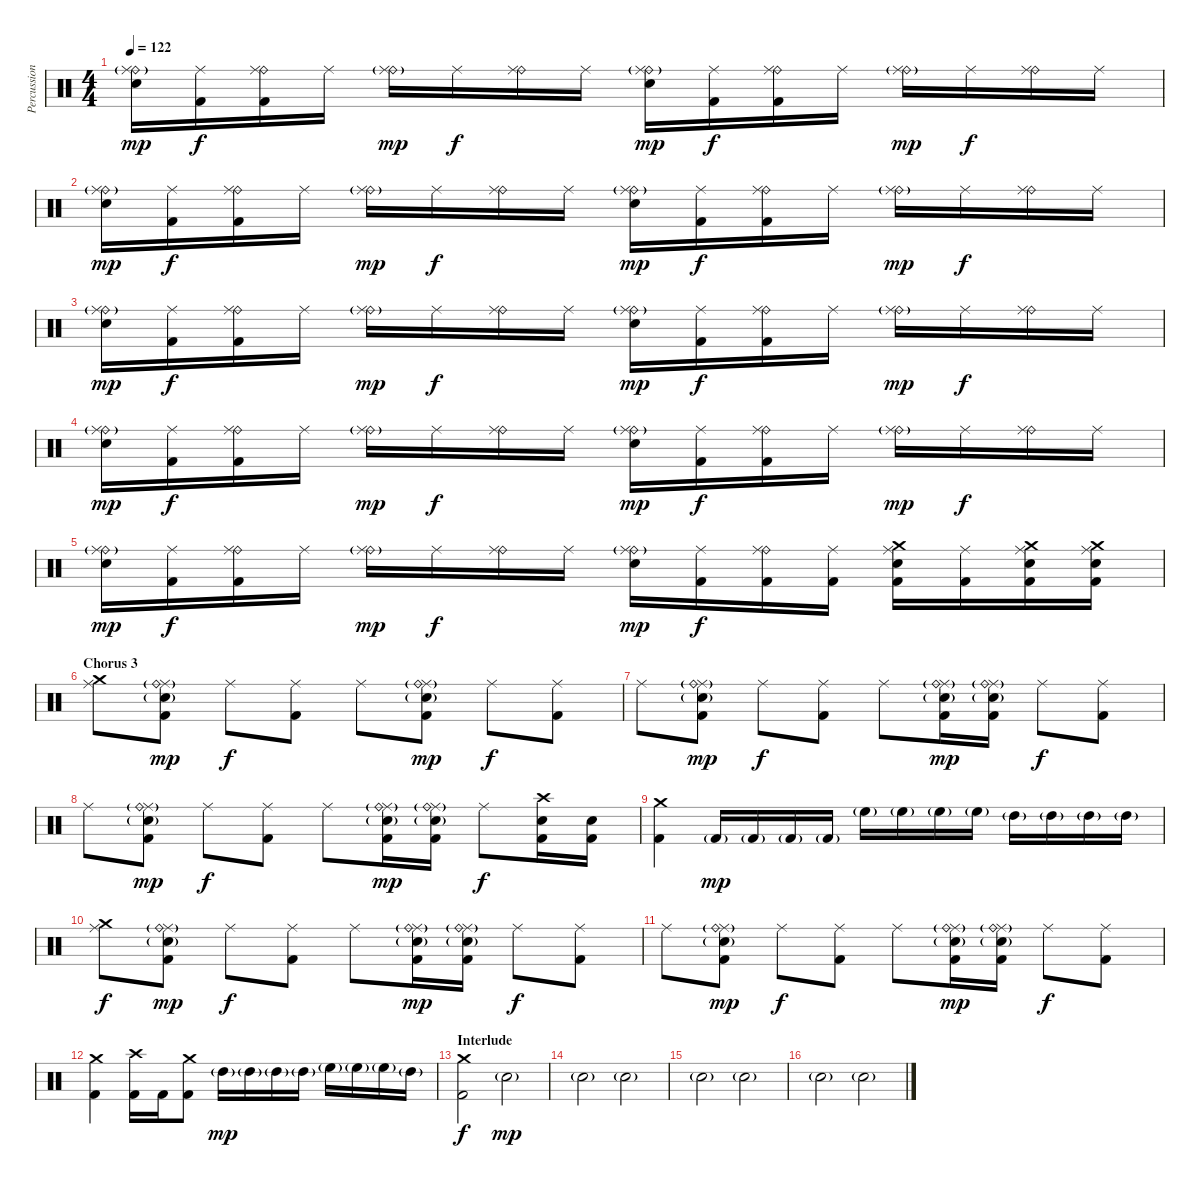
\track ("Percussion" "Percussion") {instrument percussion}
\staff {score}
\articulation defaults
\ts (4 4)
\tempo 122
\clef neutral
\ks c
("Ride (bell)"{g} "Ride (middle)"{g} "Snare (hit) 2").16{dy mp} ("Ride (middle)" "Kick (hit) 2").16{dy f} ("Ride (bell)" "Ride (middle)" "Kick (hit) 2").16 "Ride (middle)".16 ("Ride (bell)"{g} "Ride (middle)").16{dy mp} "Ride (middle)".16{dy f} ("Ride (bell)" "Ride (middle)").16 "Ride (middle)".16 ("Ride (bell)"{g} "Ride (middle)"{g} "Snare (hit) 2").16{dy mp} ("Ride (middle)" "Kick (hit) 2").16{dy f} ("Ride (bell)" "Ride (middle)" "Kick (hit) 2").16 "Ride (middle)".16 ("Ride (bell)"{g} "Ride (middle)").16{dy mp} "Ride (middle)".16{dy f} ("Ride (bell)" "Ride (middle)").16 "Ride (middle)".16 |
("Ride (bell)"{g} "Ride (middle)"{g} "Snare (hit) 2").16{dy mp} ("Ride (middle)" "Kick (hit) 2").16{dy f} ("Ride (bell)" "Ride (middle)" "Kick (hit) 2").16 "Ride (middle)".16 ("Ride (bell)"{g} "Ride (middle)").16{dy mp} "Ride (middle)".16{dy f} ("Ride (bell)" "Ride (middle)").16 "Ride (middle)".16 ("Ride (bell)"{g} "Ride (middle)"{g} "Snare (hit) 2").16{dy mp} ("Ride (middle)" "Kick (hit) 2").16{dy f} ("Ride (bell)" "Ride (middle)" "Kick (hit) 2").16 "Ride (middle)".16 ("Ride (bell)"{g} "Ride (middle)").16{dy mp} "Ride (middle)".16{dy f} ("Ride (bell)" "Ride (middle)").16 "Ride (middle)".16 |
("Ride (bell)"{g} "Ride (middle)"{g} "Snare (hit) 2").16{dy mp} ("Ride (middle)" "Kick (hit) 2").16{dy f} ("Ride (bell)" "Ride (middle)" "Kick (hit) 2").16 "Ride (middle)".16 ("Ride (bell)"{g} "Ride (middle)").16{dy mp} "Ride (middle)".16{dy f} ("Ride (bell)" "Ride (middle)").16 "Ride (middle)".16 ("Ride (bell)"{g} "Ride (middle)"{g} "Snare (hit) 2").16{dy mp} ("Ride (middle)" "Kick (hit) 2").16{dy f} ("Ride (bell)" "Ride (middle)" "Kick (hit) 2").16 "Ride (middle)".16 ("Ride (bell)"{g} "Ride (middle)").16{dy mp} "Ride (middle)".16{dy f} ("Ride (bell)" "Ride (middle)").16 "Ride (middle)".16 |
("Ride (bell)"{g} "Ride (middle)"{g} "Snare (hit) 2").16{dy mp} ("Ride (middle)" "Kick (hit) 2").16{dy f} ("Ride (bell)" "Ride (middle)" "Kick (hit) 2").16 "Ride (middle)".16 ("Ride (bell)"{g} "Ride (middle)").16{dy mp} "Ride (middle)".16{dy f} ("Ride (bell)" "Ride (middle)").16 "Ride (middle)".16 ("Ride (bell)"{g} "Ride (middle)"{g} "Snare (hit) 2").16{dy mp} ("Ride (middle)" "Kick (hit) 2").16{dy f} ("Ride (bell)" "Ride (middle)" "Kick (hit) 2").16 "Ride (middle)".16 ("Ride (bell)"{g} "Ride (middle)").16{dy mp} "Ride (middle)".16{dy f} ("Ride (bell)" "Ride (middle)").16 "Ride (middle)".16 |
("Ride (bell)"{g} "Ride (middle)"{g} "Snare (hit) 2").16{dy mp} ("Ride (middle)" "Kick (hit) 2").16{dy f} ("Ride (bell)" "Ride (middle)" "Kick (hit) 2").16 "Ride (middle)".16 ("Ride (bell)"{g} "Ride (middle)").16{dy mp} "Ride (middle)".16{dy f} ("Ride (bell)" "Ride (middle)").16 "Ride (middle)".16 ("Ride (bell)"{g} "Ride (middle)"{g} "Snare (hit) 2").16{dy mp} ("Ride (middle)" "Kick (hit) 2").16{dy f} ("Ride (bell)" "Ride (middle)" "Kick (hit) 2").16 ("Ride (middle)" "Kick (hit) 2").16 ("Crash medium (hit)" "Ride (middle)" "Snare (hit) 2" "Kick (hit) 2").16 ("Ride (middle)" "Kick (hit) 2").16 ("Crash medium (hit)" "Ride (middle)" "Snare (hit) 2" "Kick (hit) 2").16 ("Crash medium (hit)" "Ride (middle)" "Snare (hit) 2" "Kick (hit) 2").16 |
\section ("" "Chorus 3")
("Crash medium (hit)" "Ride (middle)").8{volume 7} ("Snare (hit) 2"{g} "Ride (middle)"{g} "Ride (bell)" "Kick (hit) 2").8{dy mp} "Ride (middle)".8{dy f} ("Ride (middle)" "Kick (hit) 2").8 "Ride (middle)".8 ("Snare (hit) 2"{g} "Ride (middle)"{g} "Ride (bell)" "Kick (hit) 2").8{dy mp} "Ride (middle)".8{dy f} ("Ride (middle)" "Kick (hit) 2").8 |
"Ride (middle)".8 ("Snare (hit) 2"{g} "Ride (middle)"{g} "Ride (bell)" "Kick (hit) 2").8{dy mp} "Ride (middle)".8{dy f} ("Ride (middle)" "Kick (hit) 2").8 "Ride (middle)".8 ("Snare (hit) 2"{g} "Ride (middle)"{g} "Ride (bell)" "Kick (hit) 2").16{dy mp} ("Snare (hit) 2"{g} "Ride (middle)"{g} "Ride (bell)" "Kick (hit) 2").16 "Ride (middle)".8{dy f} ("Ride (middle)" "Kick (hit) 2").8 |
"Ride (middle)".8 ("Snare (hit) 2"{g} "Ride (middle)"{g} "Ride (bell)" "Kick (hit) 2").8{dy mp} "Ride (middle)".8{dy f} ("Ride (middle)" "Kick (hit) 2").8 "Ride (middle)".8 ("Snare (hit) 2"{g} "Ride (middle)"{g} "Ride (bell)" "Kick (hit) 2").16{dy mp} ("Snare (hit) 2"{g} "Ride (middle)"{g} "Ride (bell)" "Kick (hit) 2").16 "Ride (middle)".8{dy f} ("Snare (hit) 2" "Crash high (hit)" "Kick (hit) 2").16 ("Snare (hit) 2" "Kick (hit) 2").16 |
("Crash medium (hit)" "Kick (hit) 2").4 "Kick (hit) 2"{g}.16{dy mp} "Kick (hit) 2"{g}.16 "Kick (hit) 2"{g}.16 "Kick (hit) 2"{g}.16 "High Floor Tom (hit)"{g}.16 "High Floor Tom (hit)"{g}.16 "High Floor Tom (hit)"{g}.16 "High Floor Tom (hit)"{g}.16 "High Tom (hit)"{g}.16 "High Tom (hit)"{g}.16 "High Tom (hit)"{g}.16 "High Tom (hit)"{g}.16 |
("Crash medium (hit)" "Ride (middle)").8{dy f} ("Snare (hit) 2"{g} "Ride (middle)"{g} "Ride (bell)" "Kick (hit) 2").8{dy mp} "Ride (middle)".8{dy f} ("Ride (middle)" "Kick (hit) 2").8 "Ride (middle)".8 ("Snare (hit) 2"{g} "Ride (middle)"{g} "Ride (bell)" "Kick (hit) 2").16{dy mp} ("Snare (hit) 2"{g} "Ride (middle)"{g} "Ride (bell)" "Kick (hit) 2").16 "Ride (middle)".8{dy f} ("Ride (middle)" "Kick (hit) 2").8 |
"Ride (middle)".8 ("Snare (hit) 2"{g} "Ride (middle)"{g} "Ride (bell)" "Kick (hit) 2").8{dy mp} "Ride (middle)".8{dy f} ("Ride (middle)" "Kick (hit) 2").8 "Ride (middle)".8 ("Snare (hit) 2"{g} "Ride (middle)"{g} "Ride (bell)" "Kick (hit) 2").16{dy mp} ("Snare (hit) 2"{g} "Ride (middle)"{g} "Ride (bell)" "Kick (hit) 2").16 "Ride (middle)".8{dy f} ("Ride (middle)" "Kick (hit) 2").8 |
("Crash medium (hit)" "Kick (hit) 2").4 ("Crash high (hit)" "Kick (hit) 2").16 "Kick (hit) 2".16 ("Crash medium (hit)" "Kick (hit) 2").8 "High Tom (hit)"{g}.16{dy mp} "High Tom (hit)"{g}.16 "High Tom (hit)"{g}.16 "High Tom (hit)"{g}.16 "High Floor Tom (hit)"{g}.16 "High Floor Tom (hit)"{g}.16 "High Floor Tom (hit)"{g}.16 "High Tom (hit)"{g}.16 |
\section ("" "Interlude")
("Crash medium (hit)" "Kick (hit) 2").2{dy f volume 9} "Snare (hit) 2"{g}.2{dy mp} |
"Snare (hit) 2"{g}.2 "Snare (hit) 2"{g}.2 |
"Snare (hit) 2"{g}.2 "Snare (hit) 2"{g}.2 |
"Snare (hit) 2"{g}.2 "Snare (hit) 2"{g}.2
